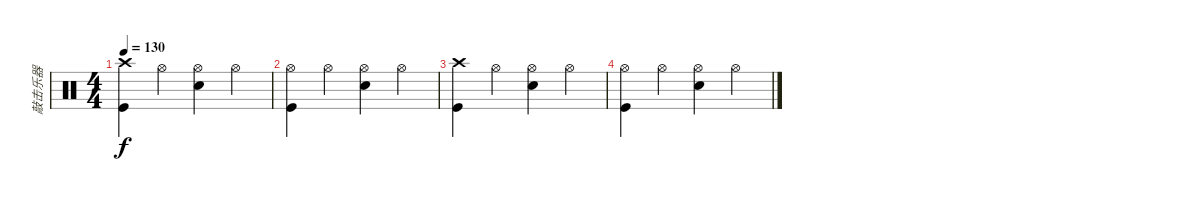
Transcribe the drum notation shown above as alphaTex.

\track ("敲击乐器" "敲击乐器") {instrument percussion}
\staff {score}
\articulation defaults
\ts (4 4)
\tempo 130
\clef neutral
\ks c
("Crash high (hit)" "Kick (hit)").4{dy f} "Hi-Hat (open)".4 ("Hi-Hat (open)" "Electric Snare (hit)").4 "Hi-Hat (open)".4 |
("Hi-Hat (open)" "Kick (hit)").4 "Hi-Hat (open)".4 ("Hi-Hat (open)" "Electric Snare (hit)").4 "Hi-Hat (open)".4 |
("Crash high (hit)" "Kick (hit)").4 "Hi-Hat (open)".4 ("Hi-Hat (open)" "Electric Snare (hit)").4 "Hi-Hat (open)".4 |
("Hi-Hat (open)" "Kick (hit)").4 "Hi-Hat (open)".4 ("Hi-Hat (open)" "Electric Snare (hit)").4 "Hi-Hat (open)".4
